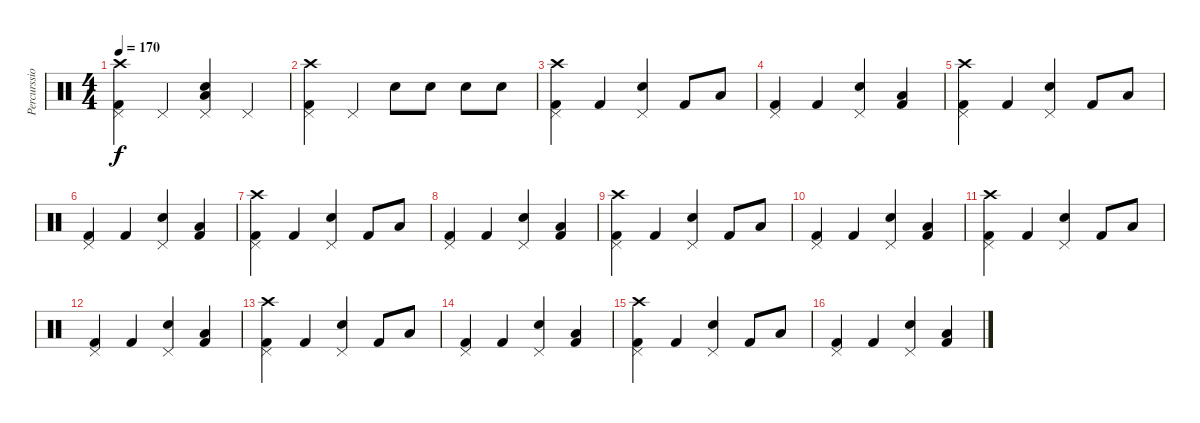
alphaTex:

\track ("Percurssion" "Percurssio") {instrument percussion}
\staff {score}
\articulation defaults
\ts (4 4)
\tempo 170
\clef neutral
\ks c
("Crash high (hit)" "Pedal Hi-Hat (hit)" "Kick (hit) 2").4{dy f} "Pedal Hi-Hat (hit)".4 ("Low Tom (hit)" "Pedal Hi-Hat (hit)" "Electric Snare (hit)").4 "Pedal Hi-Hat (hit)".4 |
("Crash high (hit)" "Pedal Hi-Hat (hit)" "Kick (hit) 2").4 "Pedal Hi-Hat (hit)".4 "Electric Snare (hit)".8 "Electric Snare (hit)".8 "Electric Snare (hit)".8 "Electric Snare (hit)".8 |
("Crash high (hit)" "Pedal Hi-Hat (hit)" "Kick (hit) 2").4 "Kick (hit) 2".4 ("Pedal Hi-Hat (hit)" "Electric Snare (hit)").4 "Kick (hit) 2".8 "Low Tom (hit)".8 |
("Pedal Hi-Hat (hit)" "Kick (hit) 2").4 "Kick (hit) 2".4 ("Pedal Hi-Hat (hit)" "Electric Snare (hit)").4 ("Low Tom (hit)" "Kick (hit) 2").4{bu 240} |
("Crash high (hit)" "Pedal Hi-Hat (hit)" "Kick (hit) 2").4 "Kick (hit) 2".4 ("Pedal Hi-Hat (hit)" "Electric Snare (hit)").4 "Kick (hit) 2".8 "Low Tom (hit)".8 |
("Pedal Hi-Hat (hit)" "Kick (hit) 2").4 "Kick (hit) 2".4 ("Pedal Hi-Hat (hit)" "Electric Snare (hit)").4 ("Low Tom (hit)" "Kick (hit) 2").4{bu 240} |
("Crash high (hit)" "Pedal Hi-Hat (hit)" "Kick (hit) 2").4 "Kick (hit) 2".4 ("Pedal Hi-Hat (hit)" "Electric Snare (hit)").4 "Kick (hit) 2".8 "Low Tom (hit)".8 |
("Pedal Hi-Hat (hit)" "Kick (hit) 2").4 "Kick (hit) 2".4 ("Pedal Hi-Hat (hit)" "Electric Snare (hit)").4 ("Low Tom (hit)" "Kick (hit) 2").4{bu 240} |
("Crash high (hit)" "Pedal Hi-Hat (hit)" "Kick (hit) 2").4 "Kick (hit) 2".4 ("Pedal Hi-Hat (hit)" "Electric Snare (hit)").4 "Kick (hit) 2".8 "Low Tom (hit)".8 |
("Pedal Hi-Hat (hit)" "Kick (hit) 2").4 "Kick (hit) 2".4 ("Pedal Hi-Hat (hit)" "Electric Snare (hit)").4 ("Low Tom (hit)" "Kick (hit) 2").4{bu 240} |
("Crash high (hit)" "Pedal Hi-Hat (hit)" "Kick (hit) 2").4 "Kick (hit) 2".4 ("Pedal Hi-Hat (hit)" "Electric Snare (hit)").4 "Kick (hit) 2".8 "Low Tom (hit)".8 |
("Pedal Hi-Hat (hit)" "Kick (hit) 2").4 "Kick (hit) 2".4 ("Pedal Hi-Hat (hit)" "Electric Snare (hit)").4 ("Low Tom (hit)" "Kick (hit) 2").4{bu 240} |
("Crash high (hit)" "Pedal Hi-Hat (hit)" "Kick (hit) 2").4 "Kick (hit) 2".4 ("Pedal Hi-Hat (hit)" "Electric Snare (hit)").4 "Kick (hit) 2".8 "Low Tom (hit)".8 |
("Pedal Hi-Hat (hit)" "Kick (hit) 2").4 "Kick (hit) 2".4 ("Pedal Hi-Hat (hit)" "Electric Snare (hit)").4 ("Low Tom (hit)" "Kick (hit) 2").4{bu 240} |
("Crash high (hit)" "Pedal Hi-Hat (hit)" "Kick (hit) 2").4 "Kick (hit) 2".4 ("Pedal Hi-Hat (hit)" "Electric Snare (hit)").4 "Kick (hit) 2".8 "Low Tom (hit)".8 |
("Pedal Hi-Hat (hit)" "Kick (hit) 2").4 "Kick (hit) 2".4 ("Pedal Hi-Hat (hit)" "Electric Snare (hit)").4 ("Low Tom (hit)" "Kick (hit) 2").4{bu 240}
